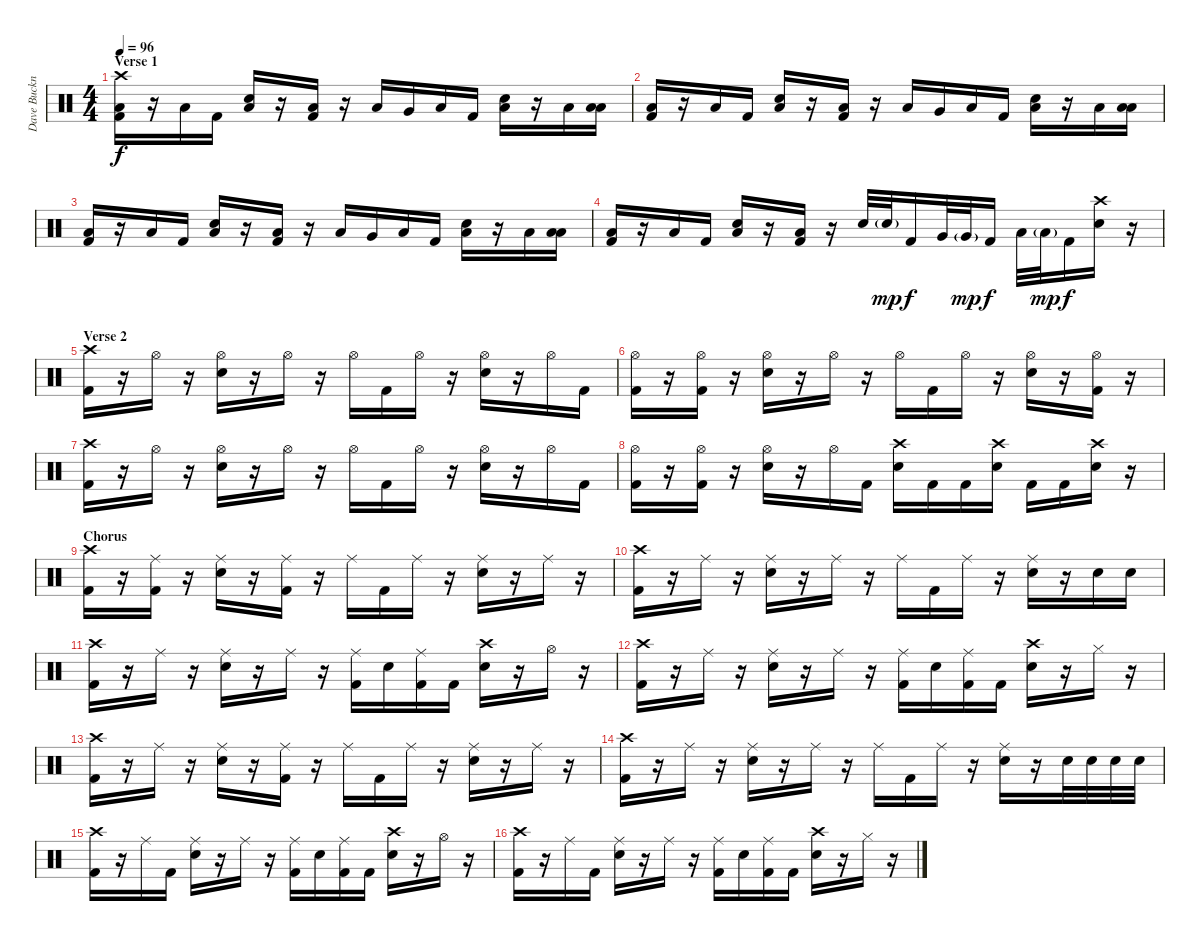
\track ("Dave Buckner" "Dave Buckn") {instrument percussion}
\staff {score}
\articulation defaults
\ts (4 4)
\section ("" "Verse 1")
\tempo 96
\clef neutral
\ks c
("Crash high (hit)" "Low Floor Tom (hit)" "Kick (hit) 2").16{dy f} r.16 "Low Tom (hit)".16 "Kick (hit) 2".16 ("Low Floor Tom (hit)" "Snare (hit) 2").16 r.16 ("Low Floor Tom (hit)" "Kick (hit) 2").16 r.16 "Low Floor Tom (hit)".16 "Very Low Tom (hit)".16 "Low Tom (hit)".16 "Kick (hit) 2".16 ("Low Floor Tom (hit)" "Snare (hit) 2").16 r.16 "Low Floor Tom (hit)".16 ("Low Tom (hit)" "Low Floor Tom (hit)").16 |
("Low Floor Tom (hit)" "Kick (hit) 2").16 r.16 "Low Tom (hit)".16 "Kick (hit) 2".16 ("Low Floor Tom (hit)" "Snare (hit) 2").16 r.16 ("Low Floor Tom (hit)" "Kick (hit) 2").16 r.16 "Low Floor Tom (hit)".16 "Very Low Tom (hit)".16 "Low Tom (hit)".16 "Kick (hit) 2".16 ("Low Floor Tom (hit)" "Snare (hit) 2").16 r.16 "Low Floor Tom (hit)".16 ("Low Tom (hit)" "Low Floor Tom (hit)").16 |
("Low Floor Tom (hit)" "Kick (hit) 2").16 r.16 "Low Tom (hit)".16 "Kick (hit) 2".16 ("Low Floor Tom (hit)" "Snare (hit) 2").16 r.16 ("Low Floor Tom (hit)" "Kick (hit) 2").16 r.16 "Low Floor Tom (hit)".16 "Very Low Tom (hit)".16 "Low Tom (hit)".16 "Kick (hit) 2".16 ("Low Floor Tom (hit)" "Snare (hit) 2").16 r.16 "Low Floor Tom (hit)".16 ("Low Tom (hit)" "Low Floor Tom (hit)").16 |
("Low Floor Tom (hit)" "Kick (hit) 2").16 r.16 "Low Tom (hit)".16 "Kick (hit) 2".16 ("Low Floor Tom (hit)" "Snare (hit) 2").16 r.16 ("Low Floor Tom (hit)" "Kick (hit) 2").16 r.16 "Snare (hit) 2".32 "Snare (hit) 2"{g}.32{dy mp} "Kick (hit) 2".16{dy f} "Very Low Tom (hit)".32 "Very Low Tom (hit)"{g}.32{dy mp} "Kick (hit) 2".16{dy f} "Low Tom (hit)".32 "Low Tom (hit)"{g}.32{dy mp} "Kick (hit) 2".16{dy f} ("Crash high (hit)" "Snare (hit) 2").16 r.16 |
\section ("" "Verse 2")
("Crash high (hit)" "Kick (hit) 2").16 r.16 "Hi-Hat (open)".16 r.16 ("Hi-Hat (open)" "Snare (hit) 2").16 r.16 "Hi-Hat (open)".16 r.16 "Hi-Hat (open)".16 "Kick (hit) 2".16 "Hi-Hat (open)".16 r.16 ("Hi-Hat (open)" "Snare (hit) 2").16 r.16 "Hi-Hat (open)".16 "Kick (hit) 2".16 |
("Hi-Hat (open)" "Kick (hit) 2").16 r.16 ("Hi-Hat (open)" "Kick (hit) 2").16 r.16 ("Hi-Hat (open)" "Snare (hit) 2").16 r.16 "Hi-Hat (open)".16 r.16 "Hi-Hat (open)".16 "Kick (hit) 2".16 "Hi-Hat (open)".16 r.16 ("Hi-Hat (open)" "Snare (hit) 2").16 r.16 ("Hi-Hat (open)" "Kick (hit) 2").16 r.16 |
("Crash high (hit)" "Kick (hit) 2").16 r.16 "Hi-Hat (open)".16 r.16 ("Hi-Hat (open)" "Snare (hit) 2").16 r.16 "Hi-Hat (open)".16 r.16 "Hi-Hat (open)".16 "Kick (hit) 2".16 "Hi-Hat (open)".16 r.16 ("Hi-Hat (open)" "Snare (hit) 2").16 r.16 "Hi-Hat (open)".16 "Kick (hit) 2".16 |
("Hi-Hat (open)" "Kick (hit) 2").16 r.16 ("Hi-Hat (open)" "Kick (hit) 2").16 r.16 ("Hi-Hat (open)" "Snare (hit) 2").16 r.16 "Hi-Hat (open)".16 "Kick (hit) 2".16 ("Crash high (hit)" "Snare (hit) 2").16 "Kick (hit) 2".16 "Kick (hit) 2".16 ("Crash high (hit)" "Snare (hit) 2").16 "Kick (hit) 2".16 "Kick (hit) 2".16 ("Crash high (hit)" "Snare (hit) 2").16 r.16 |
\section ("" "Chorus")
("Crash high (hit)" "Kick (hit) 2").16 r.16 ("Ride (middle)" "Kick (hit) 2").16 r.16 ("Ride (middle)" "Snare (hit) 2").16 r.16 ("Ride (middle)" "Kick (hit) 2").16 r.16 "Ride (middle)".16 "Kick (hit) 2".16 "Ride (middle)".16 r.16 ("Ride (middle)" "Snare (hit) 2").16 r.16 "Ride (middle)".16 r.16 |
("Crash high (hit)" "Kick (hit) 2").16 r.16 "Ride (middle)".16 r.16 ("Ride (middle)" "Snare (hit) 2").16 r.16 "Ride (middle)".16 r.16 "Ride (middle)".16 "Kick (hit) 2".16 "Ride (middle)".16 r.16 ("Ride (middle)" "Snare (hit) 2").16 r.16 "Snare (hit) 2".16 "Snare (hit) 2".16 |
("Crash high (hit)" "Kick (hit) 2").16 r.16 "Ride (middle)".16 r.16 ("Ride (middle)" "Snare (hit) 2").16 r.16 "Ride (middle)".16 r.16 ("Ride (middle)" "Kick (hit) 2").16 "Snare (hit) 2".16 ("Ride (middle)" "Kick (hit) 2").16 "Kick (hit) 2".16 ("Crash high (hit)" "Snare (hit) 2").16 r.16 "Hi-Hat (open)".16 r.16 |
("Crash high (hit)" "Kick (hit) 2").16 r.16 "Ride (middle)".16 r.16 ("Ride (middle)" "Snare (hit) 2").16 r.16 "Ride (middle)".16 r.16 ("Ride (middle)" "Kick (hit) 2").16 "Snare (hit) 2".16 ("Ride (middle)" "Kick (hit) 2").16 "Kick (hit) 2".16 ("Crash high (hit)" "Snare (hit) 2").16 r.16 "Hi-Hat (closed)".16 r.16 |
("Crash high (hit)" "Kick (hit) 2").16 r.16 "Ride (middle)".16 r.16 ("Ride (middle)" "Snare (hit) 2").16 r.16 ("Ride (middle)" "Kick (hit) 2").16 r.16 "Ride (middle)".16 "Kick (hit) 2".16 "Ride (middle)".16 r.16 ("Ride (middle)" "Snare (hit) 2").16 r.16 "Ride (middle)".16 r.16 |
("Crash high (hit)" "Kick (hit) 2").16 r.16 "Ride (middle)".16 r.16 ("Ride (middle)" "Snare (hit) 2").16 r.16 "Ride (middle)".16 r.16 "Ride (middle)".16 "Kick (hit) 2".16 "Ride (middle)".16 r.16 ("Ride (middle)" "Snare (hit) 2").16 r.16 "Snare (hit) 2".32 "Snare (hit) 2".32 "Snare (hit) 2".32 "Snare (hit) 2".32 |
("Crash high (hit)" "Kick (hit) 2").16 r.16 "Ride (middle)".16 "Kick (hit) 2".16 ("Ride (middle)" "Snare (hit) 2").16 r.16 "Ride (middle)".16 r.16 ("Ride (middle)" "Kick (hit) 2").16 "Snare (hit) 2".16 ("Ride (middle)" "Kick (hit) 2").16 "Kick (hit) 2".16 ("Crash high (hit)" "Snare (hit) 2").16 r.16 "Hi-Hat (open)".16 r.16 |
("Crash high (hit)" "Kick (hit) 2").16 r.16 "Ride (middle)".16 "Kick (hit) 2".16 ("Ride (middle)" "Snare (hit) 2").16 r.16 "Ride (middle)".16 r.16 ("Ride (middle)" "Kick (hit) 2").16 "Snare (hit) 2".16 ("Ride (middle)" "Kick (hit) 2").16 "Kick (hit) 2".16 ("Crash high (hit)" "Snare (hit) 2").16 r.16 "Hi-Hat (closed)".16 r.16
